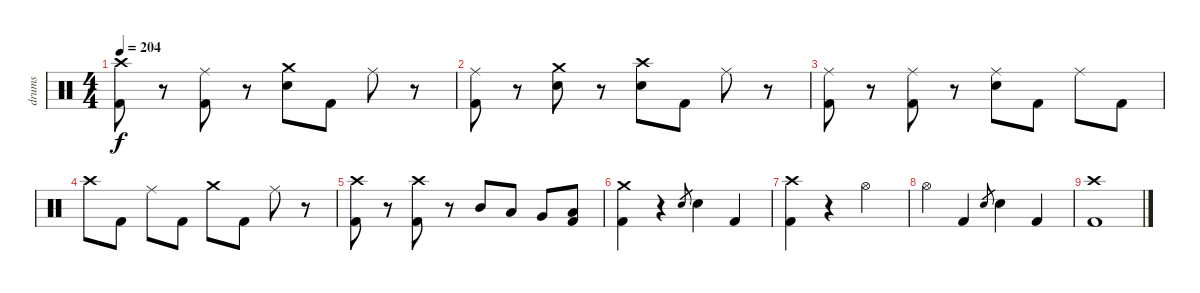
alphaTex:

\track ("drums" "drums") {instrument percussion}
\staff {score}
\articulation defaults
\ts (4 4)
\tempo 204
\clef neutral
\ks c
("Crash high (hit)" "Kick (hit) 2").8{dy f} r.8 ("Ride (middle)" "Kick (hit) 2").8 r.8 ("Crash medium (hit)" "Snare (hit) 2").8 "Kick (hit) 2".8 "Ride (middle)".8 r.8 |
("Ride (middle)" "Kick (hit) 2").8 r.8 ("Crash medium (hit)" "Snare (hit) 2").8 r.8 ("Crash high (hit)" "Snare (hit) 2").8 "Kick (hit) 2".8 "Ride (middle)".8 r.8 |
("Ride (middle)" "Kick (hit) 2").8 r.8 ("Ride (middle)" "Kick (hit) 2").8 r.8 ("Ride (middle)" "Snare (hit) 2").8 "Kick (hit) 2".8 "Ride (middle)".8 "Kick (hit) 2".8 |
"Crash high (hit)".8 "Kick (hit) 2".8 "Ride (middle)".8 "Kick (hit) 2".8 "Crash medium (hit)".8 "Kick (hit) 2".8 "Ride (middle)".8 r.8 |
("Crash high (hit)" "Kick (hit) 2").8 r.8 ("Crash high (hit)" "Kick (hit) 2").8 r.8 "Mid Tom (hit)".8 "Low Tom (hit)".8 "Very Low Tom (hit)".8 ("Low Floor Tom (hit)" "Kick (hit) 2").8 |
("Crash medium (hit)" "Kick (hit) 2").4 r.4 "Snare (hit) 2".8{gr} "Snare (hit) 2".4 "Kick (hit) 2".4 |
("Crash high (hit)" "Kick (hit) 2").4 r.4 "Hi-Hat (open)".2 |
"Hi-Hat (open)".4 "Kick (hit) 2".4 "Snare (hit) 2".8{gr} "Snare (hit) 2".4 "Kick (hit) 2".4 |
("Crash high (hit)" "Kick (hit) 2").1
